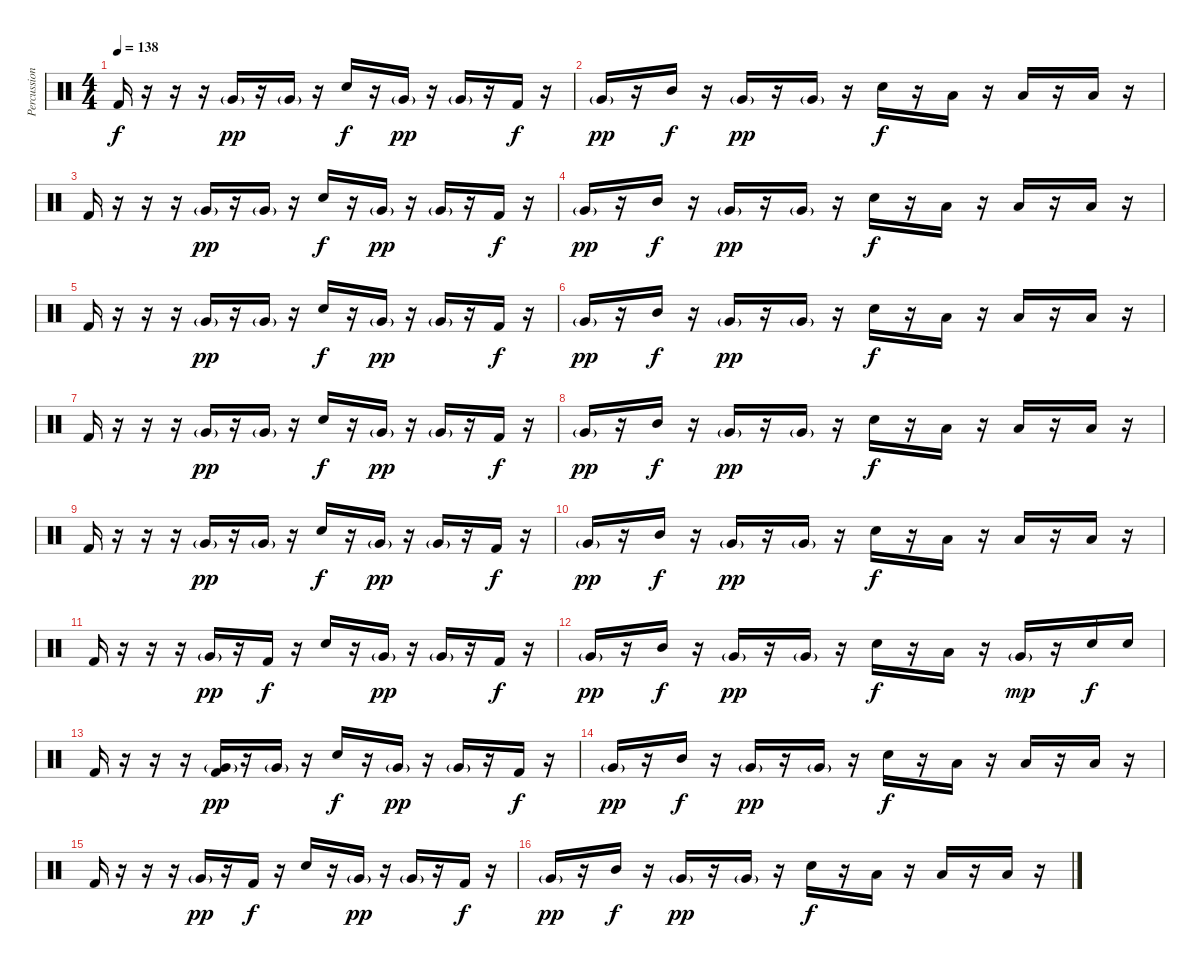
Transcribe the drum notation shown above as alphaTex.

\track ("Percussion" "Percussion") {instrument percussion}
\staff {score}
\articulation defaults
\ts (4 4)
\tempo 138
\clef neutral
\ks c "Kick (hit) 2".16{dy f}
r.16 r.16 r.16 "Very Low Tom (hit)"{g}.16{dy pp} r.16 "Very Low Tom (hit)"{g}.16 r.16 "Electric Snare (hit)".16{dy f} r.16 "Very Low Tom (hit)"{g}.16{dy pp} r.16 "Very Low Tom (hit)"{g}.16 r.16 "Kick (hit) 2".16{dy f} r.16 |
"Very Low Tom (hit)"{g}.16{dy pp} r.16 "Mid Tom (hit)".16{dy f} r.16 "Very Low Tom (hit)"{g}.16{dy pp} r.16 "Very Low Tom (hit)"{g}.16 r.16 "Electric Snare (hit)".16{dy f} r.16 "Low Tom (hit)".16 r.16 "Low Tom (hit)".16 r.16 "Low Tom (hit)".16 r.16 |
"Kick (hit) 2".16 r.16 r.16 r.16 "Very Low Tom (hit)"{g}.16{dy pp} r.16 "Very Low Tom (hit)"{g}.16 r.16 "Electric Snare (hit)".16{dy f} r.16 "Very Low Tom (hit)"{g}.16{dy pp} r.16 "Very Low Tom (hit)"{g}.16 r.16 "Kick (hit) 2".16{dy f} r.16 |
"Very Low Tom (hit)"{g}.16{dy pp} r.16 "Mid Tom (hit)".16{dy f} r.16 "Very Low Tom (hit)"{g}.16{dy pp} r.16 "Very Low Tom (hit)"{g}.16 r.16 "Electric Snare (hit)".16{dy f} r.16 "Low Tom (hit)".16 r.16 "Low Tom (hit)".16 r.16 "Low Tom (hit)".16 r.16 |
"Kick (hit) 2".16 r.16 r.16 r.16 "Very Low Tom (hit)"{g}.16{dy pp} r.16 "Very Low Tom (hit)"{g}.16 r.16 "Electric Snare (hit)".16{dy f} r.16 "Very Low Tom (hit)"{g}.16{dy pp} r.16 "Very Low Tom (hit)"{g}.16 r.16 "Kick (hit) 2".16{dy f} r.16 |
"Very Low Tom (hit)"{g}.16{dy pp} r.16 "Mid Tom (hit)".16{dy f} r.16 "Very Low Tom (hit)"{g}.16{dy pp} r.16 "Very Low Tom (hit)"{g}.16 r.16 "Electric Snare (hit)".16{dy f} r.16 "Low Tom (hit)".16 r.16 "Low Tom (hit)".16 r.16 "Low Tom (hit)".16 r.16 |
"Kick (hit) 2".16 r.16 r.16 r.16 "Very Low Tom (hit)"{g}.16{dy pp} r.16 "Very Low Tom (hit)"{g}.16 r.16 "Electric Snare (hit)".16{dy f} r.16 "Very Low Tom (hit)"{g}.16{dy pp} r.16 "Very Low Tom (hit)"{g}.16 r.16 "Kick (hit) 2".16{dy f} r.16 |
"Very Low Tom (hit)"{g}.16{dy pp} r.16 "Mid Tom (hit)".16{dy f} r.16 "Very Low Tom (hit)"{g}.16{dy pp} r.16 "Very Low Tom (hit)"{g}.16 r.16 "Electric Snare (hit)".16{dy f} r.16 "Low Tom (hit)".16 r.16 "Low Tom (hit)".16 r.16 "Low Tom (hit)".16 r.16 |
"Kick (hit) 2".16{volume 9} r.16 r.16 r.16 "Very Low Tom (hit)"{g}.16{dy pp} r.16 "Very Low Tom (hit)"{g}.16 r.16 "Electric Snare (hit)".16{dy f} r.16 "Very Low Tom (hit)"{g}.16{dy pp} r.16 "Very Low Tom (hit)"{g}.16 r.16 "Kick (hit) 2".16{dy f} r.16 |
"Very Low Tom (hit)"{g}.16{dy pp} r.16 "Mid Tom (hit)".16{dy f} r.16 "Very Low Tom (hit)"{g}.16{dy pp} r.16 "Very Low Tom (hit)"{g}.16 r.16 "Electric Snare (hit)".16{dy f} r.16 "Low Tom (hit)".16 r.16 "Low Tom (hit)".16 r.16 "Low Tom (hit)".16 r.16 |
"Kick (hit) 2".16 r.16 r.16 r.16 "Very Low Tom (hit)"{g}.16{dy pp} r.16 "Kick (hit) 2".16{dy f} r.16 "Electric Snare (hit)".16 r.16 "Very Low Tom (hit)"{g}.16{dy pp} r.16 "Very Low Tom (hit)"{g}.16 r.16 "Kick (hit) 2".16{dy f} r.16 |
"Very Low Tom (hit)"{g}.16{dy pp} r.16 "Mid Tom (hit)".16{dy f} r.16 "Very Low Tom (hit)"{g}.16{dy pp} r.16 "Very Low Tom (hit)"{g}.16 r.16 "Electric Snare (hit)".16{dy f} r.16 "Low Tom (hit)".16 r.16 "Very Low Tom (hit)"{g}.16{dy mp} r.16 "Electric Snare (hit)".16{dy f} "Electric Snare (hit)".16 |
"Kick (hit) 2".16{volume 6} r.16 r.16 r.16 ("Very Low Tom (hit)"{g} "Kick (hit) 2").16{dy pp} r.16 "Very Low Tom (hit)"{g}.16 r.16 "Electric Snare (hit)".16{dy f} r.16 "Very Low Tom (hit)"{g}.16{dy pp} r.16 "Very Low Tom (hit)"{g}.16 r.16 "Kick (hit) 2".16{dy f} r.16 |
"Very Low Tom (hit)"{g}.16{dy pp} r.16 "Mid Tom (hit)".16{dy f} r.16 "Very Low Tom (hit)"{g}.16{dy pp} r.16 "Very Low Tom (hit)"{g}.16 r.16 "Electric Snare (hit)".16{dy f} r.16 "Low Tom (hit)".16 r.16 "Low Tom (hit)".16 r.16 "Low Tom (hit)".16 r.16 |
"Kick (hit) 2".16 r.16 r.16 r.16 "Very Low Tom (hit)"{g}.16{dy pp} r.16 "Kick (hit) 2".16{dy f} r.16 "Electric Snare (hit)".16 r.16 "Very Low Tom (hit)"{g}.16{dy pp} r.16 "Very Low Tom (hit)"{g}.16 r.16 "Kick (hit) 2".16{dy f} r.16 |
"Very Low Tom (hit)"{g}.16{dy pp} r.16 "Mid Tom (hit)".16{dy f} r.16 "Very Low Tom (hit)"{g}.16{dy pp} r.16 "Very Low Tom (hit)"{g}.16 r.16 "Electric Snare (hit)".16{dy f} r.16 "Low Tom (hit)".16 r.16 "Low Tom (hit)".16 r.16 "Low Tom (hit)".16 r.16
